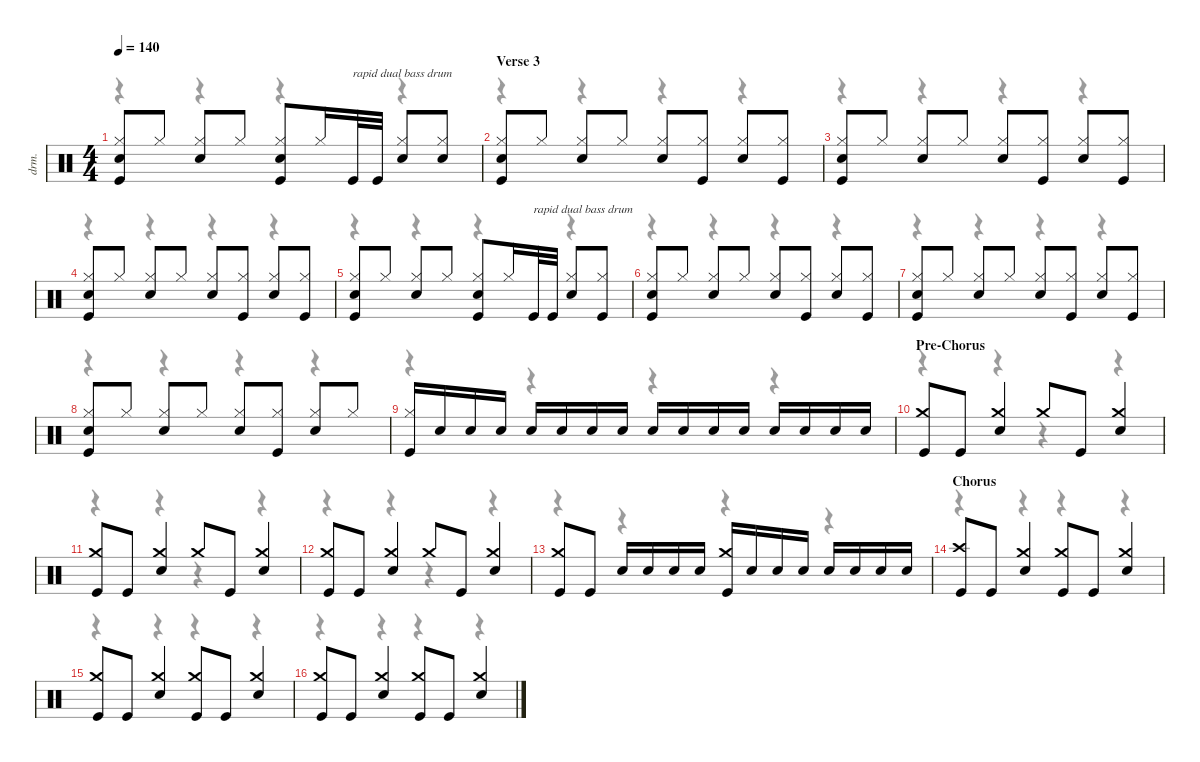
\defaultSystemsLayout 4
\hideDynamics
\bracketExtendMode nobrackets
\otherSystemsTrackNameOrientation horizontal
\track ("Alex Van Halen (Drums)" "drm.") {instrument percussion}
\staff {score}
\articulation defaults
\voice
\ts (4 4)
\tempo 140
\clef neutral
\ks c
("Hi-Hat (closed)" "Snare (hit) 2" "Kick (hit)").8{dy f beam Up} "Hi-Hat (closed)".8{beam Up} ("Hi-Hat (closed)" "Snare (hit) 2").8{beam Up} "Hi-Hat (closed)".8{beam Up} ("Hi-Hat (closed)" "Snare (hit) 2" "Kick (hit)").8{beam Up} "Hi-Hat (closed)".16{beam Up} "Kick (hit)".32{txt "rapid dual bass drum" beam Up} "Kick (hit)".32{beam Up} ("Hi-Hat (closed)" "Snare (hit) 2").8{beam Up} ("Hi-Hat (closed)" "Snare (hit) 2").8{beam Up} |
\section ("" "Verse 3")
("Hi-Hat (closed)" "Snare (hit) 2" "Kick (hit)").8{beam Up} "Hi-Hat (closed)".8{beam Up} ("Hi-Hat (closed)" "Snare (hit) 2").8{beam Up} "Hi-Hat (closed)".8{beam Up} ("Hi-Hat (closed)" "Snare (hit) 2").8{beam Up} ("Hi-Hat (closed)" "Kick (hit)").8{beam Up} ("Hi-Hat (closed)" "Snare (hit) 2").8{beam Up} ("Hi-Hat (closed)" "Kick (hit)").8{beam Up} |
("Hi-Hat (closed)" "Snare (hit) 2" "Kick (hit)").8{beam Up} "Hi-Hat (closed)".8{beam Up} ("Hi-Hat (closed)" "Snare (hit) 2").8{beam Up} "Hi-Hat (closed)".8{beam Up} ("Hi-Hat (closed)" "Snare (hit) 2").8{beam Up} ("Hi-Hat (closed)" "Kick (hit)").8{beam Up} ("Hi-Hat (closed)" "Snare (hit) 2").8{beam Up} ("Hi-Hat (closed)" "Kick (hit)").8{beam Up} |
("Hi-Hat (closed)" "Snare (hit) 2" "Kick (hit)").8{beam Up} "Hi-Hat (closed)".8{beam Up} ("Hi-Hat (closed)" "Snare (hit) 2").8{beam Up} "Hi-Hat (closed)".8{beam Up} ("Hi-Hat (closed)" "Snare (hit) 2").8{beam Up} ("Hi-Hat (closed)" "Kick (hit)").8{beam Up} ("Hi-Hat (closed)" "Snare (hit) 2").8{beam Up} ("Hi-Hat (closed)" "Kick (hit)").8{beam Up} |
("Hi-Hat (closed)" "Snare (hit) 2" "Kick (hit)").8{beam Up} "Hi-Hat (closed)".8{beam Up} ("Hi-Hat (closed)" "Snare (hit) 2").8{beam Up} "Hi-Hat (closed)".8{beam Up} ("Hi-Hat (closed)" "Snare (hit) 2" "Kick (hit)").8{beam Up} "Hi-Hat (closed)".16{beam Up} "Kick (hit)".32{txt "rapid dual bass drum" beam Up} "Kick (hit)".32{beam Up} ("Hi-Hat (closed)" "Snare (hit) 2").8{beam Up} ("Hi-Hat (closed)" "Kick (hit)").8{beam Up} |
("Hi-Hat (closed)" "Snare (hit) 2" "Kick (hit)").8{beam Up} "Hi-Hat (closed)".8{beam Up} ("Hi-Hat (closed)" "Snare (hit) 2").8{beam Up} "Hi-Hat (closed)".8{beam Up} ("Hi-Hat (closed)" "Snare (hit) 2").8{beam Up} ("Hi-Hat (closed)" "Kick (hit)").8{beam Up} ("Hi-Hat (closed)" "Snare (hit) 2").8{beam Up} ("Hi-Hat (closed)" "Kick (hit)").8{beam Up} |
("Hi-Hat (closed)" "Snare (hit) 2" "Kick (hit)").8{beam Up} "Hi-Hat (closed)".8{beam Up} ("Hi-Hat (closed)" "Snare (hit) 2").8{beam Up} "Hi-Hat (closed)".8{beam Up} ("Hi-Hat (closed)" "Snare (hit) 2").8{beam Up} ("Hi-Hat (closed)" "Kick (hit)").8{beam Up} ("Hi-Hat (closed)" "Snare (hit) 2").8{beam Up} ("Hi-Hat (closed)" "Kick (hit)").8{beam Up} |
("Hi-Hat (closed)" "Snare (hit) 2" "Kick (hit)").8{beam Up} "Hi-Hat (closed)".8{beam Up} ("Hi-Hat (closed)" "Snare (hit) 2").8{beam Up} "Hi-Hat (closed)".8{beam Up} ("Hi-Hat (closed)" "Snare (hit) 2").8{beam Up} ("Hi-Hat (closed)" "Kick (hit)").8{beam Up} ("Hi-Hat (closed)" "Snare (hit) 2").8{beam Up} "Hi-Hat (closed)".8{beam Up} |
("Hi-Hat (closed)" "Kick (hit)").16{beam Up} "Snare (hit) 2".16{beam Up} "Snare (hit) 2".16{beam Up} "Snare (hit) 2".16{beam Up} "Snare (hit) 2".16{beam Up} "Snare (hit) 2".16{beam Up} "Snare (hit) 2".16{beam Up} "Snare (hit) 2".16{beam Up} "Snare (hit) 2".16{beam Up} "Snare (hit) 2".16{beam Up} "Snare (hit) 2".16{beam Up} "Snare (hit) 2".16{beam Up} "Snare (hit) 2".16{beam Up} "Snare (hit) 2".16{beam Up} "Snare (hit) 2".16{beam Up} "Snare (hit) 2".16{beam Up} |
\section ("" "Pre-Chorus")
("Crash medium (hit)" "Kick (hit)").8{dy mf beam Up} "Kick (hit)".8{dy f beam Up} ("Crash medium (hit)" "Snare (hit) 2").4{dy mf beam Up} "Crash medium (hit)".8{beam Up} "Kick (hit)".8{dy f beam Up} ("Crash medium (hit)" "Snare (hit) 2").4{dy mf beam Up} |
("Crash medium (hit)" "Kick (hit)").8{beam Up} "Kick (hit)".8{dy f beam Up} ("Crash medium (hit)" "Snare (hit) 2").4{dy mf beam Up} "Crash medium (hit)".8{beam Up} "Kick (hit)".8{dy f beam Up} ("Crash medium (hit)" "Snare (hit) 2").4{dy mf beam Up} |
("Crash medium (hit)" "Kick (hit)").8{beam Up} "Kick (hit)".8{dy f beam Up} ("Crash medium (hit)" "Snare (hit) 2").4{dy mf beam Up} "Crash medium (hit)".8{beam Up} "Kick (hit)".8{dy f beam Up} ("Crash medium (hit)" "Snare (hit) 2").4{dy mf beam Up} |
("Crash medium (hit)" "Kick (hit)").8{beam Up} "Kick (hit)".8{dy f beam Up} "Snare (hit) 2".16{beam Up} "Snare (hit) 2".16{beam Up} "Snare (hit) 2".16{beam Up} "Snare (hit) 2".16{beam Up} ("Crash medium (hit)" "Kick (hit)").16{dy mf beam Up} "Snare (hit) 2".16{dy f beam Up} "Snare (hit) 2".16{beam Up} "Snare (hit) 2".16{beam Up} "Snare (hit) 2".16{beam Up} "Snare (hit) 2".16{beam Up} "Snare (hit) 2".16{beam Up} "Snare (hit) 2".16{beam Up} |
\section ("" "Chorus")
("Crash high (hit)" "Kick (hit)").8{beam Up} "Kick (hit)".8{beam Up} ("Crash medium (hit)" "Snare (hit) 2").4{dy mf beam Up} ("Crash medium (hit)" "Kick (hit)").8{beam Up} "Kick (hit)".8{dy f beam Up} ("Crash medium (hit)" "Snare (hit) 2").4{dy mf beam Up} |
("Crash medium (hit)" "Kick (hit)").8{beam Up} "Kick (hit)".8{dy f beam Up} ("Crash medium (hit)" "Snare (hit) 2").4{dy mf beam Up} ("Crash medium (hit)" "Kick (hit)").8{beam Up} "Kick (hit)".8{dy f beam Up} ("Crash medium (hit)" "Snare (hit) 2").4{dy mf beam Up} |
("Crash medium (hit)" "Kick (hit)").8{beam Up} "Kick (hit)".8{dy f beam Up} ("Crash medium (hit)" "Snare (hit) 2").4{dy mf beam Up} ("Crash medium (hit)" "Kick (hit)").8{beam Up} "Kick (hit)".8{dy f beam Up} ("Crash medium (hit)" "Snare (hit) 2").4{dy mf beam Up}
\voice
\clef neutral
\ottava regular
\simile none
\ks c
r.4{dy mf beam Down} r.4{beam Down} r.4{beam Down} r.4{beam Down} |
r.4{beam Down} r.4{beam Down} r.4{beam Down} r.4{beam Down} |
r.4{beam Down} r.4{beam Down} r.4{beam Down} r.4{beam Down} |
r.4{beam Down} r.4{beam Down} r.4{beam Down} r.4{beam Down} |
r.4{beam Down} r.4{beam Down} r.4{beam Down} r.4{beam Down} |
r.4{beam Down} r.4{beam Down} r.4{beam Down} r.4{beam Down} |
r.4{beam Down} r.4{beam Down} r.4{beam Down} r.4{beam Down} |
r.4{beam Down} r.4{beam Down} r.4{beam Down} r.4{beam Down} |
r.4{beam Down} r.4{beam Down} r.4{beam Down} r.4{beam Down} |
r.4{beam Down} r.4{beam Down} r.4{beam Down} r.4{beam Down} |
r.4{beam Down} r.4{beam Down} r.4{beam Down} r.4{beam Down} |
r.4{beam Down} r.4{beam Down} r.4{beam Down} r.4{beam Down} |
r.4{beam Down} r.4{beam Down} r.4{beam Down} r.4{beam Down} |
r.4{beam Down} r.4{beam Down} r.4{beam Down} r.4{beam Down} |
r.4{beam Down} r.4{beam Down} r.4{beam Down} r.4{beam Down} |
r.4{beam Down} r.4{beam Down} r.4{beam Down} r.4{beam Down}
